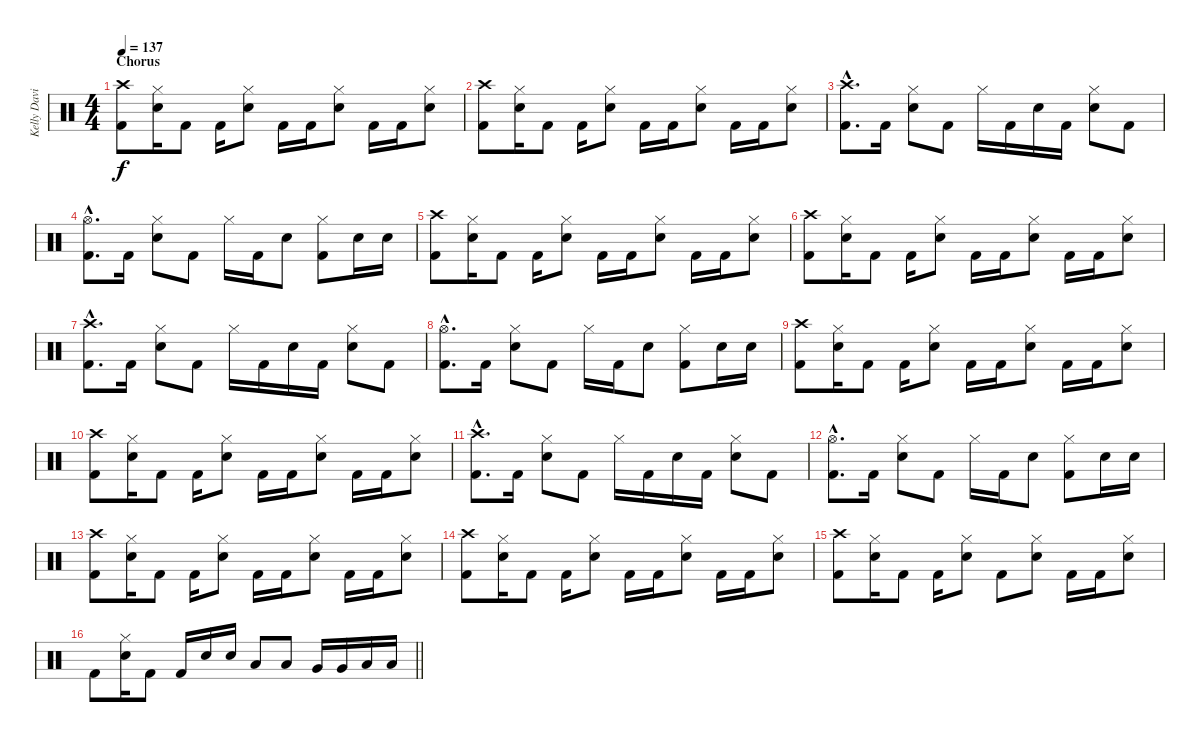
\track ("Kelly David Smith" "Kelly Davi") {instrument percussion}
\staff {score}
\articulation defaults
\ts (4 4)
\section ("" "Chorus")
\tempo 137
\clef neutral
\ks c
("Crash high (hit)" "Kick (hit) 2").8{dy f} ("Hi-Hat (closed)" "Snare (hit) 2").16 "Kick (hit) 2".8 "Kick (hit) 2".16 ("Hi-Hat (closed)" "Snare (hit) 2").8 "Kick (hit) 2".16 "Kick (hit) 2".16 ("Hi-Hat (closed)" "Snare (hit) 2").8 "Kick (hit) 2".16 "Kick (hit) 2".16 ("Hi-Hat (closed)" "Snare (hit) 2").8 |
("Crash high (hit)" "Kick (hit) 2").8 ("Hi-Hat (closed)" "Snare (hit) 2").16 "Kick (hit) 2".8 "Kick (hit) 2".16 ("Hi-Hat (closed)" "Snare (hit) 2").8 "Kick (hit) 2".16 "Kick (hit) 2".16 ("Hi-Hat (closed)" "Snare (hit) 2").8 "Kick (hit) 2".16 "Kick (hit) 2".16 ("Hi-Hat (closed)" "Snare (hit) 2").8 |
("Crash high (hit)"{hac} "Kick (hit) 2"{hac}).8{d} "Kick (hit) 2".16 ("Hi-Hat (closed)" "Snare (hit) 2").8 "Kick (hit) 2".8 "Hi-Hat (closed)".16 "Kick (hit) 2".16 "Snare (hit) 2".16 "Kick (hit) 2".16 ("Hi-Hat (closed)" "Snare (hit) 2").8 "Kick (hit) 2".8 |
("Hi-Hat (open)"{hac} "Kick (hit) 2"{hac}).8{d} "Kick (hit) 2".16 ("Hi-Hat (closed)" "Snare (hit) 2").8 "Kick (hit) 2".8 "Hi-Hat (closed)".16 "Kick (hit) 2".16 "Snare (hit) 2".8 ("Hi-Hat (closed)" "Kick (hit) 2").8 "Snare (hit) 2".16 "Snare (hit) 2".16 |
("Crash high (hit)" "Kick (hit) 2").8 ("Hi-Hat (closed)" "Snare (hit) 2").16 "Kick (hit) 2".8 "Kick (hit) 2".16 ("Hi-Hat (closed)" "Snare (hit) 2").8 "Kick (hit) 2".16 "Kick (hit) 2".16 ("Hi-Hat (closed)" "Snare (hit) 2").8 "Kick (hit) 2".16 "Kick (hit) 2".16 ("Hi-Hat (closed)" "Snare (hit) 2").8 |
("Crash high (hit)" "Kick (hit) 2").8 ("Hi-Hat (closed)" "Snare (hit) 2").16 "Kick (hit) 2".8 "Kick (hit) 2".16 ("Hi-Hat (closed)" "Snare (hit) 2").8 "Kick (hit) 2".16 "Kick (hit) 2".16 ("Hi-Hat (closed)" "Snare (hit) 2").8 "Kick (hit) 2".16 "Kick (hit) 2".16 ("Hi-Hat (closed)" "Snare (hit) 2").8 |
("Crash high (hit)"{hac} "Kick (hit) 2"{hac}).8{d} "Kick (hit) 2".16 ("Hi-Hat (closed)" "Snare (hit) 2").8 "Kick (hit) 2".8 "Hi-Hat (closed)".16 "Kick (hit) 2".16 "Snare (hit) 2".16 "Kick (hit) 2".16 ("Hi-Hat (closed)" "Snare (hit) 2").8 "Kick (hit) 2".8 |
("Hi-Hat (open)"{hac} "Kick (hit) 2"{hac}).8{d} "Kick (hit) 2".16 ("Hi-Hat (closed)" "Snare (hit) 2").8 "Kick (hit) 2".8 "Hi-Hat (closed)".16 "Kick (hit) 2".16 "Snare (hit) 2".8 ("Hi-Hat (closed)" "Kick (hit) 2").8 "Snare (hit) 2".16 "Snare (hit) 2".16 |
("Crash high (hit)" "Kick (hit) 2").8 ("Hi-Hat (closed)" "Snare (hit) 2").16 "Kick (hit) 2".8 "Kick (hit) 2".16 ("Hi-Hat (closed)" "Snare (hit) 2").8 "Kick (hit) 2".16 "Kick (hit) 2".16 ("Hi-Hat (closed)" "Snare (hit) 2").8 "Kick (hit) 2".16 "Kick (hit) 2".16 ("Hi-Hat (closed)" "Snare (hit) 2").8 |
("Crash high (hit)" "Kick (hit) 2").8 ("Hi-Hat (closed)" "Snare (hit) 2").16 "Kick (hit) 2".8 "Kick (hit) 2".16 ("Hi-Hat (closed)" "Snare (hit) 2").8 "Kick (hit) 2".16 "Kick (hit) 2".16 ("Hi-Hat (closed)" "Snare (hit) 2").8 "Kick (hit) 2".16 "Kick (hit) 2".16 ("Hi-Hat (closed)" "Snare (hit) 2").8 |
("Crash high (hit)"{hac} "Kick (hit) 2"{hac}).8{d} "Kick (hit) 2".16 ("Hi-Hat (closed)" "Snare (hit) 2").8 "Kick (hit) 2".8 "Hi-Hat (closed)".16 "Kick (hit) 2".16 "Snare (hit) 2".16 "Kick (hit) 2".16 ("Hi-Hat (closed)" "Snare (hit) 2").8 "Kick (hit) 2".8 |
("Hi-Hat (open)"{hac} "Kick (hit) 2"{hac}).8{d} "Kick (hit) 2".16 ("Hi-Hat (closed)" "Snare (hit) 2").8 "Kick (hit) 2".8 "Hi-Hat (closed)".16 "Kick (hit) 2".16 "Snare (hit) 2".8 ("Hi-Hat (closed)" "Kick (hit) 2").8 "Snare (hit) 2".16 "Snare (hit) 2".16 |
("Crash high (hit)" "Kick (hit) 2").8 ("Hi-Hat (closed)" "Snare (hit) 2").16 "Kick (hit) 2".8 "Kick (hit) 2".16 ("Hi-Hat (closed)" "Snare (hit) 2").8 "Kick (hit) 2".16 "Kick (hit) 2".16 ("Hi-Hat (closed)" "Snare (hit) 2").8 "Kick (hit) 2".16 "Kick (hit) 2".16 ("Hi-Hat (closed)" "Snare (hit) 2").8 |
("Crash high (hit)" "Kick (hit) 2").8 ("Hi-Hat (closed)" "Snare (hit) 2").16 "Kick (hit) 2".8 "Kick (hit) 2".16 ("Hi-Hat (closed)" "Snare (hit) 2").8 "Kick (hit) 2".16 "Kick (hit) 2".16 ("Hi-Hat (closed)" "Snare (hit) 2").8 "Kick (hit) 2".16 "Kick (hit) 2".16 ("Hi-Hat (closed)" "Snare (hit) 2").8 |
("Crash high (hit)" "Kick (hit) 2").8 ("Hi-Hat (closed)" "Snare (hit) 2").16 "Kick (hit) 2".8 "Kick (hit) 2".16 ("Hi-Hat (closed)" "Snare (hit) 2").8 "Kick (hit) 2".8 ("Hi-Hat (closed)" "Snare (hit) 2").8 "Kick (hit) 2".16 "Kick (hit) 2".16 ("Hi-Hat (closed)" "Snare (hit) 2").8 |
\barLineRight lightlight "Kick (hit) 2".8
("Hi-Hat (closed)" "Snare (hit) 2").16 "Kick (hit) 2".8 "Kick (hit) 2".16 "Snare (hit) 2".16 "Snare (hit) 2".16 "Low Tom (hit)".8 "Low Tom (hit)".8 "Very Low Tom (hit)".16 "Very Low Tom (hit)".16 "Low Floor Tom (hit)".16 "Low Floor Tom (hit)".16
